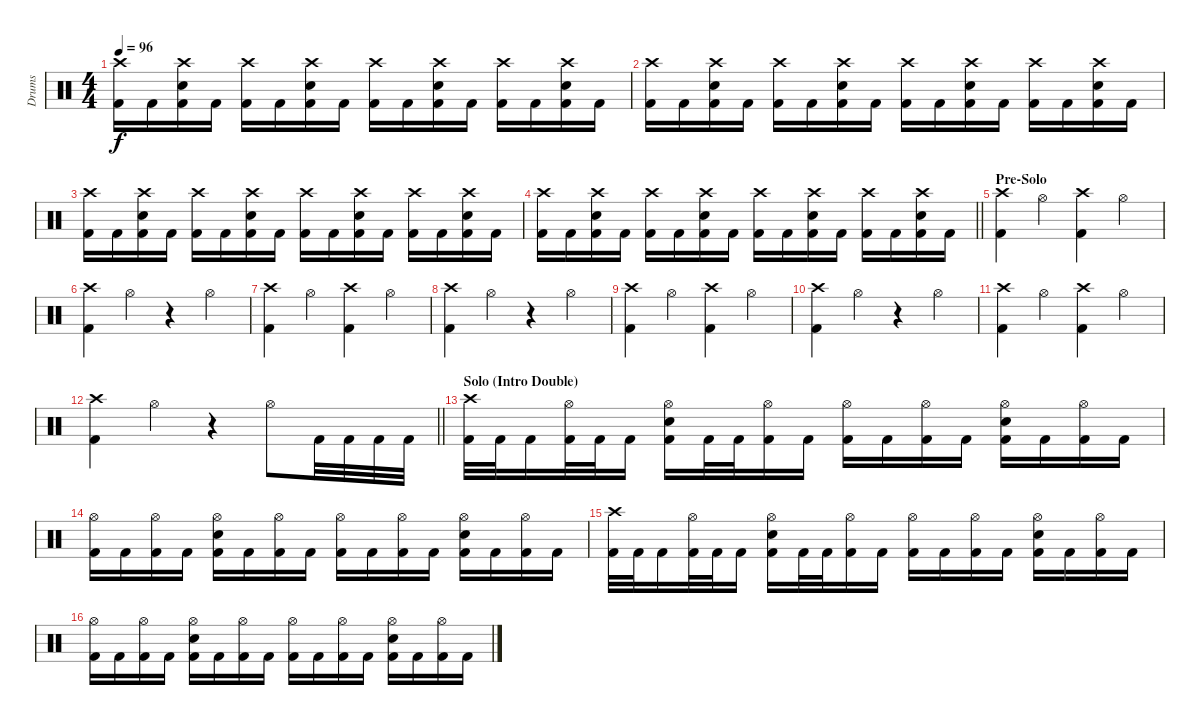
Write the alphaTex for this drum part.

\track ("Drums" "Drums") {instrument percussion}
\staff {score}
\articulation defaults
\ts (4 4)
\tempo 96
\clef neutral
\ks c
("Crash high (hit)" "Kick (hit) 2").16{dy f} "Kick (hit) 2".16 ("Crash high (hit)" "Snare (hit) 2" "Kick (hit) 2").16 "Kick (hit) 2".16 ("Crash high (hit)" "Kick (hit) 2").16 "Kick (hit) 2".16 ("Crash high (hit)" "Snare (hit) 2" "Kick (hit) 2").16 "Kick (hit) 2".16 ("Crash high (hit)" "Kick (hit) 2").16 "Kick (hit) 2".16 ("Crash high (hit)" "Snare (hit) 2" "Kick (hit) 2").16 "Kick (hit) 2".16 ("Crash high (hit)" "Kick (hit) 2").16 "Kick (hit) 2".16 ("Crash high (hit)" "Snare (hit) 2" "Kick (hit) 2").16 "Kick (hit) 2".16 |
("Crash high (hit)" "Kick (hit) 2").16 "Kick (hit) 2".16 ("Crash high (hit)" "Snare (hit) 2" "Kick (hit) 2").16 "Kick (hit) 2".16 ("Crash high (hit)" "Kick (hit) 2").16 "Kick (hit) 2".16 ("Crash high (hit)" "Snare (hit) 2" "Kick (hit) 2").16 "Kick (hit) 2".16 ("Crash high (hit)" "Kick (hit) 2").16 "Kick (hit) 2".16 ("Crash high (hit)" "Snare (hit) 2" "Kick (hit) 2").16 "Kick (hit) 2".16 ("Crash high (hit)" "Kick (hit) 2").16 "Kick (hit) 2".16 ("Crash high (hit)" "Snare (hit) 2" "Kick (hit) 2").16 "Kick (hit) 2".16 |
("Crash high (hit)" "Kick (hit) 2").16 "Kick (hit) 2".16 ("Crash high (hit)" "Snare (hit) 2" "Kick (hit) 2").16 "Kick (hit) 2".16 ("Crash high (hit)" "Kick (hit) 2").16 "Kick (hit) 2".16 ("Crash high (hit)" "Snare (hit) 2" "Kick (hit) 2").16 "Kick (hit) 2".16 ("Crash high (hit)" "Kick (hit) 2").16 "Kick (hit) 2".16 ("Crash high (hit)" "Snare (hit) 2" "Kick (hit) 2").16 "Kick (hit) 2".16 ("Crash high (hit)" "Kick (hit) 2").16 "Kick (hit) 2".16 ("Crash high (hit)" "Snare (hit) 2" "Kick (hit) 2").16 "Kick (hit) 2".16 |
\barLineRight lightlight
("Crash high (hit)" "Kick (hit) 2").16 "Kick (hit) 2".16 ("Crash high (hit)" "Snare (hit) 2" "Kick (hit) 2").16 "Kick (hit) 2".16 ("Crash high (hit)" "Kick (hit) 2").16 "Kick (hit) 2".16 ("Crash high (hit)" "Snare (hit) 2" "Kick (hit) 2").16 "Kick (hit) 2".16 ("Crash high (hit)" "Kick (hit) 2").16 "Kick (hit) 2".16 ("Crash high (hit)" "Snare (hit) 2" "Kick (hit) 2").16 "Kick (hit) 2".16 ("Crash high (hit)" "Kick (hit) 2").16 "Kick (hit) 2".16 ("Crash high (hit)" "Snare (hit) 2" "Kick (hit) 2").16 "Kick (hit) 2".16 |
\section ("" "Pre-Solo")
("Crash high (hit)" "Kick (hit) 2").4 "Hi-Hat (open)".4 ("Crash high (hit)" "Kick (hit) 2").4 "Hi-Hat (open)".4 |
("Crash high (hit)" "Kick (hit) 2").4 "Hi-Hat (open)".4 r.4 "Hi-Hat (open)".4 |
("Crash high (hit)" "Kick (hit) 2").4 "Hi-Hat (open)".4 ("Crash high (hit)" "Kick (hit) 2").4 "Hi-Hat (open)".4 |
("Crash high (hit)" "Kick (hit) 2").4 "Hi-Hat (open)".4 r.4 "Hi-Hat (open)".4 |
("Crash high (hit)" "Kick (hit) 2").4 "Hi-Hat (open)".4 ("Crash high (hit)" "Kick (hit) 2").4 "Hi-Hat (open)".4 |
("Crash high (hit)" "Kick (hit) 2").4 "Hi-Hat (open)".4 r.4 "Hi-Hat (open)".4 |
("Crash high (hit)" "Kick (hit) 2").4 "Hi-Hat (open)".4 ("Crash high (hit)" "Kick (hit) 2").4 "Hi-Hat (open)".4 |
\barLineRight lightlight
("Crash high (hit)" "Kick (hit) 2").4 "Hi-Hat (open)".4 r.4 "Hi-Hat (open)".8 "Kick (hit) 2".32 "Kick (hit) 2".32 "Kick (hit) 2".32 "Kick (hit) 2".32 |
\section ("" "Solo (Intro Double)")
("Crash high (hit)" "Kick (hit) 2").32 "Kick (hit) 2".32 "Kick (hit) 2".16 ("Hi-Hat (open)" "Kick (hit) 2").32 "Kick (hit) 2".32 "Kick (hit) 2".16 ("Hi-Hat (open)" "Snare (hit) 2" "Kick (hit) 2").16 "Kick (hit) 2".32 "Kick (hit) 2".32 ("Hi-Hat (open)" "Kick (hit) 2").16 "Kick (hit) 2".16 ("Hi-Hat (open)" "Kick (hit) 2").16 "Kick (hit) 2".16 ("Hi-Hat (open)" "Kick (hit) 2").16 "Kick (hit) 2".16 ("Hi-Hat (open)" "Snare (hit) 2" "Kick (hit) 2").16 "Kick (hit) 2".16 ("Hi-Hat (open)" "Kick (hit) 2").16 "Kick (hit) 2".16 |
("Hi-Hat (open)" "Kick (hit) 2").16 "Kick (hit) 2".16 ("Hi-Hat (open)" "Kick (hit) 2").16 "Kick (hit) 2".16 ("Hi-Hat (open)" "Snare (hit) 2" "Kick (hit) 2").16 "Kick (hit) 2".16 ("Hi-Hat (open)" "Kick (hit) 2").16 "Kick (hit) 2".16 ("Hi-Hat (open)" "Kick (hit) 2").16 "Kick (hit) 2".16 ("Hi-Hat (open)" "Kick (hit) 2").16 "Kick (hit) 2".16 ("Hi-Hat (open)" "Snare (hit) 2" "Kick (hit) 2").16 "Kick (hit) 2".16 ("Hi-Hat (open)" "Kick (hit) 2").16 "Kick (hit) 2".16 |
("Crash high (hit)" "Kick (hit) 2").32 "Kick (hit) 2".32 "Kick (hit) 2".16 ("Hi-Hat (open)" "Kick (hit) 2").32 "Kick (hit) 2".32 "Kick (hit) 2".16 ("Hi-Hat (open)" "Snare (hit) 2" "Kick (hit) 2").16 "Kick (hit) 2".32 "Kick (hit) 2".32 ("Hi-Hat (open)" "Kick (hit) 2").16 "Kick (hit) 2".16 ("Hi-Hat (open)" "Kick (hit) 2").16 "Kick (hit) 2".16 ("Hi-Hat (open)" "Kick (hit) 2").16 "Kick (hit) 2".16 ("Hi-Hat (open)" "Snare (hit) 2" "Kick (hit) 2").16 "Kick (hit) 2".16 ("Hi-Hat (open)" "Kick (hit) 2").16 "Kick (hit) 2".16 |
("Hi-Hat (open)" "Kick (hit) 2").16 "Kick (hit) 2".16 ("Hi-Hat (open)" "Kick (hit) 2").16 "Kick (hit) 2".16 ("Hi-Hat (open)" "Snare (hit) 2" "Kick (hit) 2").16 "Kick (hit) 2".16 ("Hi-Hat (open)" "Kick (hit) 2").16 "Kick (hit) 2".16 ("Hi-Hat (open)" "Kick (hit) 2").16 "Kick (hit) 2".16 ("Hi-Hat (open)" "Kick (hit) 2").16 "Kick (hit) 2".16 ("Hi-Hat (open)" "Snare (hit) 2" "Kick (hit) 2").16 "Kick (hit) 2".16 ("Hi-Hat (open)" "Kick (hit) 2").16 "Kick (hit) 2".16
